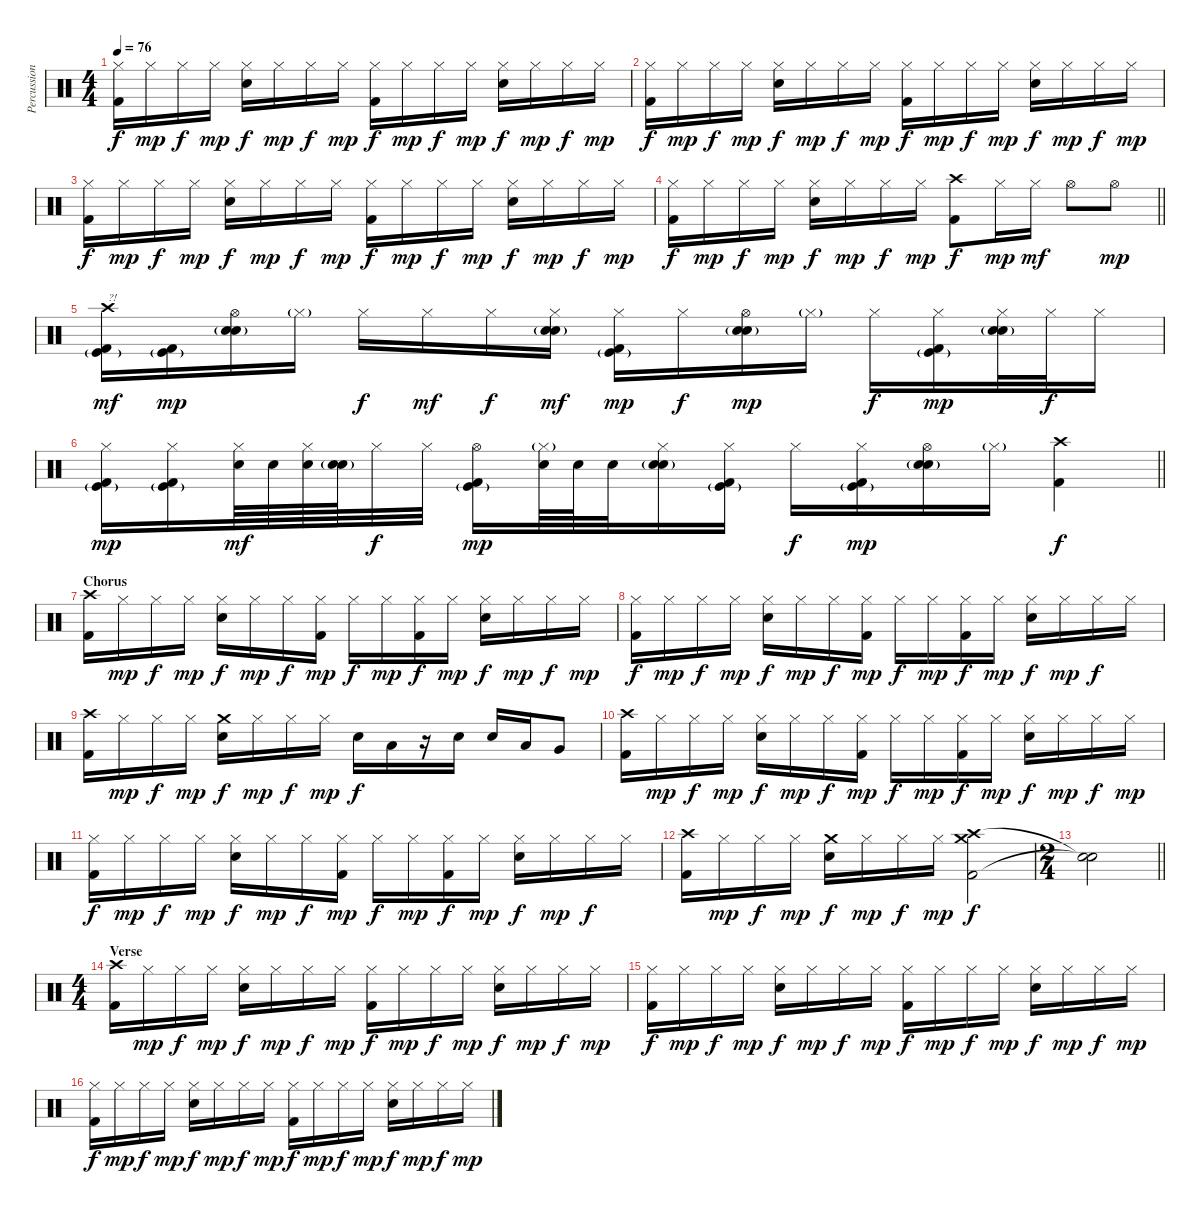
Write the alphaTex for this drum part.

\track ("Percussion" "Percussion") {instrument percussion}
\staff {score}
\articulation defaults
\ts (4 4)
\tempo 76
\clef neutral
\ks c
("Kick (hit) 2" "Hi-Hat (closed)").16{dy f} "Hi-Hat (closed)".16{dy mp} "Hi-Hat (closed)".16{dy f} "Hi-Hat (closed)".16{dy mp} ("Snare (hit) 2" "Hi-Hat (closed)").16{dy f} "Hi-Hat (closed)".16{dy mp} "Hi-Hat (closed)".16{dy f} "Hi-Hat (closed)".16{dy mp} ("Kick (hit) 2" "Hi-Hat (closed)").16{dy f} "Hi-Hat (closed)".16{dy mp} "Hi-Hat (closed)".16{dy f} "Hi-Hat (closed)".16{dy mp} ("Snare (hit) 2" "Hi-Hat (closed)").16{dy f} "Hi-Hat (closed)".16{dy mp} "Hi-Hat (closed)".16{dy f} "Hi-Hat (closed)".16{dy mp} |
("Kick (hit) 2" "Hi-Hat (closed)").16{dy f} "Hi-Hat (closed)".16{dy mp} "Hi-Hat (closed)".16{dy f} "Hi-Hat (closed)".16{dy mp} ("Snare (hit) 2" "Hi-Hat (closed)").16{dy f} "Hi-Hat (closed)".16{dy mp} "Hi-Hat (closed)".16{dy f} "Hi-Hat (closed)".16{dy mp} ("Kick (hit) 2" "Hi-Hat (closed)").16{dy f} "Hi-Hat (closed)".16{dy mp} "Hi-Hat (closed)".16{dy f} "Hi-Hat (closed)".16{dy mp} ("Snare (hit) 2" "Hi-Hat (closed)").16{dy f} "Hi-Hat (closed)".16{dy mp} "Hi-Hat (closed)".16{dy f} "Hi-Hat (closed)".16{dy mp} |
("Kick (hit) 2" "Hi-Hat (closed)").16{dy f} "Hi-Hat (closed)".16{dy mp} "Hi-Hat (closed)".16{dy f} "Hi-Hat (closed)".16{dy mp} ("Snare (hit) 2" "Hi-Hat (closed)").16{dy f} "Hi-Hat (closed)".16{dy mp} "Hi-Hat (closed)".16{dy f} "Hi-Hat (closed)".16{dy mp} ("Kick (hit) 2" "Hi-Hat (closed)").16{dy f} "Hi-Hat (closed)".16{dy mp} "Hi-Hat (closed)".16{dy f} "Hi-Hat (closed)".16{dy mp} ("Snare (hit) 2" "Hi-Hat (closed)").16{dy f} "Hi-Hat (closed)".16{dy mp} "Hi-Hat (closed)".16{dy f} "Hi-Hat (closed)".16{dy mp} |
\barLineRight lightlight
("Kick (hit) 2" "Hi-Hat (closed)").16{dy f} "Hi-Hat (closed)".16{dy mp} "Hi-Hat (closed)".16{dy f} "Hi-Hat (closed)".16{dy mp} ("Snare (hit) 2" "Hi-Hat (closed)").16{dy f} "Hi-Hat (closed)".16{dy mp} "Hi-Hat (closed)".16{dy f} "Hi-Hat (closed)".16{dy mp} ("Kick (hit) 2" "Crash high (hit)").8{dy f} "Hi-Hat (closed)".16{dy mp} "Hi-Hat (closed)".16{dy mf} "Hi-Hat (open)".8 "Hi-Hat (open)".8{dy mp} |
\section ("" "")
("Kick (hit) 2" "Kick (hit)"{g} "Crash high (hit)").16{txt "?!" dy mf} ("Kick (hit) 2" "Kick (hit)"{g}).16{dy mp} ("Electric Snare (hit)"{g} "Snare (hit) 2" "Hi-Hat (open)").16 "Hi-Hat (closed)"{g}.16 "Hi-Hat (closed)".16{dy f} "Hi-Hat (closed)".16{dy mf} "Hi-Hat (closed)".16{dy f} ("Electric Snare (hit)"{g} "Snare (hit) 2" "Hi-Hat (closed)").16{dy mf} ("Kick (hit) 2" "Kick (hit)"{g} "Hi-Hat (closed)").16{dy mp} "Hi-Hat (closed)".16{dy f} ("Electric Snare (hit)"{g} "Snare (hit) 2" "Hi-Hat (open)").16{dy mp} "Hi-Hat (closed)"{g}.16 "Hi-Hat (closed)".16{dy f} ("Kick (hit) 2" "Kick (hit)"{g} "Hi-Hat (closed)").16{dy mp} ("Electric Snare (hit)"{g} "Snare (hit) 2" "Hi-Hat (closed)").32 "Hi-Hat (closed)".32{dy f} "Hi-Hat (closed)".16 |
\barLineRight lightlight
("Kick (hit) 2" "Kick (hit)"{g} "Hi-Hat (closed)").16{dy mp} ("Kick (hit) 2" "Kick (hit)"{g} "Hi-Hat (closed)").16 ("Snare (hit) 2" "Hi-Hat (closed)").64{dy mf} "Snare (hit) 2".64 ("Snare (hit) 2" "Hi-Hat (closed)").64 ("Electric Snare (hit)"{g} "Snare (hit) 2").64 "Hi-Hat (closed)".32{dy f} "Hi-Hat (closed)".32 ("Kick (hit) 2" "Kick (hit)"{g} "Hi-Hat (open)").16{dy mp} ("Snare (hit) 2" "Hi-Hat (closed)"{g}).64 "Snare (hit) 2".64 "Snare (hit) 2".32 ("Electric Snare (hit)"{g} "Snare (hit) 2" "Hi-Hat (closed)").16 ("Kick (hit) 2" "Kick (hit)"{g} "Hi-Hat (closed)").16 "Hi-Hat (closed)".16{dy f} ("Kick (hit) 2" "Kick (hit)"{g} "Hi-Hat (closed)").16{dy mp} ("Electric Snare (hit)"{g} "Snare (hit) 2" "Hi-Hat (open)").16 "Hi-Hat (closed)"{g}.16 ("Kick (hit) 2" "Crash high (hit)").4{dy f} |
\section ("" "Chorus")
("Kick (hit) 2" "Crash high (hit)").16 "Hi-Hat (closed)".16{dy mp} "Hi-Hat (closed)".16{dy f} "Hi-Hat (closed)".16{dy mp} ("Snare (hit) 2" "Hi-Hat (closed)").16{dy f} "Hi-Hat (closed)".16{dy mp} "Hi-Hat (closed)".16{dy f} ("Kick (hit) 2" "Hi-Hat (closed)").16{dy mp} "Hi-Hat (closed)".16{dy f} "Hi-Hat (closed)".16{dy mp} ("Kick (hit) 2" "Hi-Hat (closed)").16{dy f} "Hi-Hat (closed)".16{dy mp} ("Snare (hit) 2" "Hi-Hat (closed)").16{dy f} "Hi-Hat (closed)".16{dy mp} "Hi-Hat (closed)".16{dy f} "Hi-Hat (closed)".16{dy mp} |
("Kick (hit) 2" "Hi-Hat (closed)").16{dy f} "Hi-Hat (closed)".16{dy mp} "Hi-Hat (closed)".16{dy f} "Hi-Hat (closed)".16{dy mp} ("Snare (hit) 2" "Hi-Hat (closed)").16{dy f} "Hi-Hat (closed)".16{dy mp} "Hi-Hat (closed)".16{dy f} ("Kick (hit) 2" "Hi-Hat (closed)").16{dy mp} "Hi-Hat (closed)".16{dy f} "Hi-Hat (closed)".16{dy mp} ("Kick (hit) 2" "Hi-Hat (closed)").16{dy f} "Hi-Hat (closed)".16{dy mp} ("Snare (hit) 2" "Hi-Hat (closed)").16{dy f} "Hi-Hat (closed)".16{dy mp} "Hi-Hat (closed)".16{dy f} "Hi-Hat (closed)".16 |
("Kick (hit) 2" "Crash high (hit)").16 "Hi-Hat (closed)".16{dy mp} "Hi-Hat (closed)".16{dy f} "Hi-Hat (closed)".16{dy mp} ("Crash medium (hit)" "Snare (hit) 2").16{dy f} "Hi-Hat (closed)".16{dy mp} "Hi-Hat (closed)".16{dy f} "Hi-Hat (closed)".16{dy mp} "Snare (hit) 2".16{dy f} "Low Tom (hit)".16 r.16 "Snare (hit) 2".16 "Snare (hit) 2".16 "Low Tom (hit)".16 "Very Low Tom (hit)".8 |
("Kick (hit) 2" "Crash high (hit)").16 "Hi-Hat (closed)".16{dy mp} "Hi-Hat (closed)".16{dy f} "Hi-Hat (closed)".16{dy mp} ("Snare (hit) 2" "Hi-Hat (closed)").16{dy f} "Hi-Hat (closed)".16{dy mp} "Hi-Hat (closed)".16{dy f} ("Kick (hit) 2" "Hi-Hat (closed)").16{dy mp} "Hi-Hat (closed)".16{dy f} "Hi-Hat (closed)".16{dy mp} ("Kick (hit) 2" "Hi-Hat (closed)").16{dy f} "Hi-Hat (closed)".16{dy mp} ("Snare (hit) 2" "Hi-Hat (closed)").16{dy f} "Hi-Hat (closed)".16{dy mp} "Hi-Hat (closed)".16{dy f} "Hi-Hat (closed)".16{dy mp} |
("Kick (hit) 2" "Hi-Hat (closed)").16{dy f} "Hi-Hat (closed)".16{dy mp} "Hi-Hat (closed)".16{dy f} "Hi-Hat (closed)".16{dy mp} ("Snare (hit) 2" "Hi-Hat (closed)").16{dy f} "Hi-Hat (closed)".16{dy mp} "Hi-Hat (closed)".16{dy f} ("Kick (hit) 2" "Hi-Hat (closed)").16{dy mp} "Hi-Hat (closed)".16{dy f} "Hi-Hat (closed)".16{dy mp} ("Kick (hit) 2" "Hi-Hat (closed)").16{dy f} "Hi-Hat (closed)".16{dy mp} ("Snare (hit) 2" "Hi-Hat (closed)").16{dy f} "Hi-Hat (closed)".16{dy mp} "Hi-Hat (closed)".16{dy f} "Hi-Hat (closed)".16 |
("Kick (hit) 2" "Crash high (hit)").16 "Hi-Hat (closed)".16{dy mp} "Hi-Hat (closed)".16{dy f} "Hi-Hat (closed)".16{dy mp} ("Crash medium (hit)" "Snare (hit) 2").16{dy f} "Hi-Hat (closed)".16{dy mp} "Hi-Hat (closed)".16{dy f} "Hi-Hat (closed)".16{dy mp} ("Kick (hit) 2" "Crash high (hit)" "Crash medium (hit)").2{dy f} |
\ts (2 4)
\barLineRight lightlight
("Snare (hit)"{t} "Snare (hit)"{t}).2 |
\ts (4 4)
\section ("" "Verse")
("Kick (hit) 2" "Crash high (hit)").16 "Hi-Hat (closed)".16{dy mp} "Hi-Hat (closed)".16{dy f} "Hi-Hat (closed)".16{dy mp} ("Snare (hit) 2" "Hi-Hat (closed)").16{dy f} "Hi-Hat (closed)".16{dy mp} "Hi-Hat (closed)".16{dy f} "Hi-Hat (closed)".16{dy mp} ("Kick (hit) 2" "Hi-Hat (closed)").16{dy f} "Hi-Hat (closed)".16{dy mp} "Hi-Hat (closed)".16{dy f} "Hi-Hat (closed)".16{dy mp} ("Snare (hit) 2" "Hi-Hat (closed)").16{dy f} "Hi-Hat (closed)".16{dy mp} "Hi-Hat (closed)".16{dy f} "Hi-Hat (closed)".16{dy mp} |
("Kick (hit) 2" "Hi-Hat (closed)").16{dy f} "Hi-Hat (closed)".16{dy mp} "Hi-Hat (closed)".16{dy f} "Hi-Hat (closed)".16{dy mp} ("Snare (hit) 2" "Hi-Hat (closed)").16{dy f} "Hi-Hat (closed)".16{dy mp} "Hi-Hat (closed)".16{dy f} "Hi-Hat (closed)".16{dy mp} ("Kick (hit) 2" "Hi-Hat (closed)").16{dy f} "Hi-Hat (closed)".16{dy mp} "Hi-Hat (closed)".16{dy f} "Hi-Hat (closed)".16{dy mp} ("Snare (hit) 2" "Hi-Hat (closed)").16{dy f} "Hi-Hat (closed)".16{dy mp} "Hi-Hat (closed)".16{dy f} "Hi-Hat (closed)".16{dy mp} |
("Kick (hit) 2" "Hi-Hat (closed)").16{dy f} "Hi-Hat (closed)".16{dy mp} "Hi-Hat (closed)".16{dy f} "Hi-Hat (closed)".16{dy mp} ("Snare (hit) 2" "Hi-Hat (closed)").16{dy f} "Hi-Hat (closed)".16{dy mp} "Hi-Hat (closed)".16{dy f} "Hi-Hat (closed)".16{dy mp} ("Kick (hit) 2" "Hi-Hat (closed)").16{dy f} "Hi-Hat (closed)".16{dy mp} "Hi-Hat (closed)".16{dy f} "Hi-Hat (closed)".16{dy mp} ("Snare (hit) 2" "Hi-Hat (closed)").16{dy f} "Hi-Hat (closed)".16{dy mp} "Hi-Hat (closed)".16{dy f} "Hi-Hat (closed)".16{dy mp}
